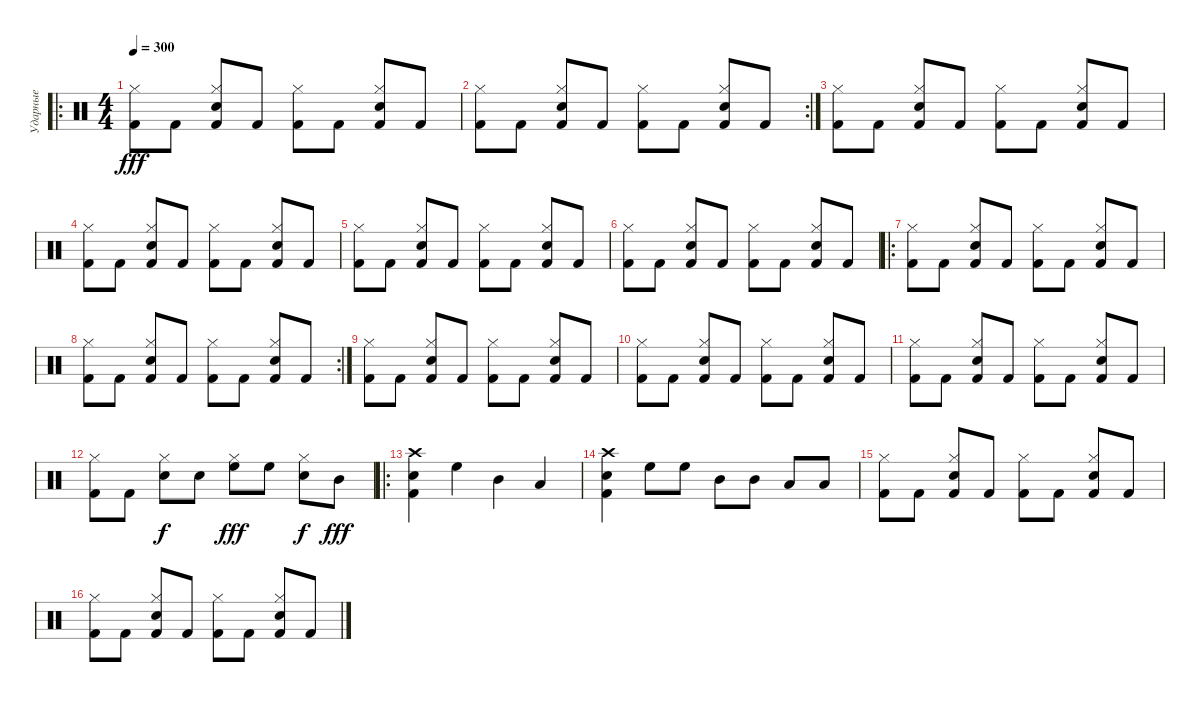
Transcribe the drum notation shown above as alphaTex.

\track ("Ударные" "Ударные") {instrument percussion}
\staff {score}
\articulation defaults
\ro
\ts (4 4)
\tempo 300
\clef neutral
\ks c
("Kick (hit) 2" "Hi-Hat (closed)").8{dy fff} "Kick (hit) 2".8 ("Kick (hit) 2" "Snare (hit) 2" "Hi-Hat (closed)").8 "Kick (hit) 2".8 ("Kick (hit) 2" "Hi-Hat (closed)").8 "Kick (hit) 2".8 ("Kick (hit) 2" "Snare (hit) 2" "Hi-Hat (closed)").8 "Kick (hit) 2".8 |
\rc 2
("Kick (hit) 2" "Hi-Hat (closed)").8 "Kick (hit) 2".8 ("Kick (hit) 2" "Snare (hit) 2" "Hi-Hat (closed)").8 "Kick (hit) 2".8 ("Kick (hit) 2" "Hi-Hat (closed)").8 "Kick (hit) 2".8 ("Kick (hit) 2" "Snare (hit) 2" "Hi-Hat (closed)").8 "Kick (hit) 2".8 |
("Kick (hit) 2" "Hi-Hat (closed)").8 "Kick (hit) 2".8 ("Kick (hit) 2" "Snare (hit) 2" "Hi-Hat (closed)").8 "Kick (hit) 2".8 ("Kick (hit) 2" "Hi-Hat (closed)").8 "Kick (hit) 2".8 ("Kick (hit) 2" "Snare (hit) 2" "Hi-Hat (closed)").8 "Kick (hit) 2".8 |
("Kick (hit) 2" "Hi-Hat (closed)").8 "Kick (hit) 2".8 ("Kick (hit) 2" "Snare (hit) 2" "Hi-Hat (closed)").8 "Kick (hit) 2".8 ("Kick (hit) 2" "Hi-Hat (closed)").8 "Kick (hit) 2".8 ("Kick (hit) 2" "Snare (hit) 2" "Hi-Hat (closed)").8 "Kick (hit) 2".8 |
("Kick (hit) 2" "Hi-Hat (closed)").8 "Kick (hit) 2".8 ("Kick (hit) 2" "Snare (hit) 2" "Hi-Hat (closed)").8 "Kick (hit) 2".8 ("Kick (hit) 2" "Hi-Hat (closed)").8 "Kick (hit) 2".8 ("Kick (hit) 2" "Snare (hit) 2" "Hi-Hat (closed)").8 "Kick (hit) 2".8 |
("Kick (hit) 2" "Hi-Hat (closed)").8 "Kick (hit) 2".8 ("Kick (hit) 2" "Snare (hit) 2" "Hi-Hat (closed)").8 "Kick (hit) 2".8 ("Kick (hit) 2" "Hi-Hat (closed)").8 "Kick (hit) 2".8 ("Kick (hit) 2" "Snare (hit) 2" "Hi-Hat (closed)").8 "Kick (hit) 2".8 |
\ro
("Kick (hit) 2" "Hi-Hat (closed)").8 "Kick (hit) 2".8 ("Kick (hit) 2" "Snare (hit) 2" "Hi-Hat (closed)").8 "Kick (hit) 2".8 ("Kick (hit) 2" "Hi-Hat (closed)").8 "Kick (hit) 2".8 ("Kick (hit) 2" "Snare (hit) 2" "Hi-Hat (closed)").8 "Kick (hit) 2".8 |
\rc 2
("Kick (hit) 2" "Hi-Hat (closed)").8 "Kick (hit) 2".8 ("Kick (hit) 2" "Snare (hit) 2" "Hi-Hat (closed)").8 "Kick (hit) 2".8 ("Kick (hit) 2" "Hi-Hat (closed)").8 "Kick (hit) 2".8 ("Kick (hit) 2" "Snare (hit) 2" "Hi-Hat (closed)").8 "Kick (hit) 2".8 |
("Kick (hit) 2" "Hi-Hat (closed)").8 "Kick (hit) 2".8 ("Kick (hit) 2" "Snare (hit) 2" "Hi-Hat (closed)").8 "Kick (hit) 2".8 ("Kick (hit) 2" "Hi-Hat (closed)").8 "Kick (hit) 2".8 ("Kick (hit) 2" "Snare (hit) 2" "Hi-Hat (closed)").8 "Kick (hit) 2".8 |
("Kick (hit) 2" "Hi-Hat (closed)").8 "Kick (hit) 2".8 ("Kick (hit) 2" "Snare (hit) 2" "Hi-Hat (closed)").8 "Kick (hit) 2".8 ("Kick (hit) 2" "Hi-Hat (closed)").8 "Kick (hit) 2".8 ("Kick (hit) 2" "Snare (hit) 2" "Hi-Hat (closed)").8 "Kick (hit) 2".8 |
("Kick (hit) 2" "Hi-Hat (closed)").8 "Kick (hit) 2".8 ("Kick (hit) 2" "Snare (hit) 2" "Hi-Hat (closed)").8 "Kick (hit) 2".8 ("Kick (hit) 2" "Hi-Hat (closed)").8 "Kick (hit) 2".8 ("Kick (hit) 2" "Snare (hit) 2" "Hi-Hat (closed)").8 "Kick (hit) 2".8 |
("Kick (hit) 2" "Hi-Hat (closed)").8 "Kick (hit) 2".8 ("Snare (hit) 2" "Hi-Hat (closed)").8{dy f} "Snare (hit) 2".8 ("High Floor Tom (hit)" "Hi-Hat (closed)").8{dy fff} "High Floor Tom (hit)".8 ("Snare (hit) 2" "Hi-Hat (closed)").8{dy f} "Mid Tom (hit)".8{dy fff} |
\ro
("Kick (hit) 2" "Snare (hit) 2" "Crash high (hit)").4 "High Floor Tom (hit)".4 "Mid Tom (hit)".4 "Low Tom (hit)".4 |
("Kick (hit) 2" "Snare (hit) 2" "Crash high (hit)").4 "High Floor Tom (hit)".8 "High Floor Tom (hit)".8 "Mid Tom (hit)".8 "Mid Tom (hit)".8 "Low Tom (hit)".8 "Low Tom (hit)".8 |
("Kick (hit) 2" "Hi-Hat (closed)").8 "Kick (hit) 2".8 ("Kick (hit) 2" "Snare (hit) 2" "Hi-Hat (closed)").8 "Kick (hit) 2".8 ("Kick (hit) 2" "Hi-Hat (closed)").8 "Kick (hit) 2".8 ("Kick (hit) 2" "Snare (hit) 2" "Hi-Hat (closed)").8 "Kick (hit) 2".8 |
("Kick (hit) 2" "Hi-Hat (closed)").8 "Kick (hit) 2".8 ("Kick (hit) 2" "Snare (hit) 2" "Hi-Hat (closed)").8 "Kick (hit) 2".8 ("Kick (hit) 2" "Hi-Hat (closed)").8 "Kick (hit) 2".8 ("Kick (hit) 2" "Snare (hit) 2" "Hi-Hat (closed)").8 "Kick (hit) 2".8
